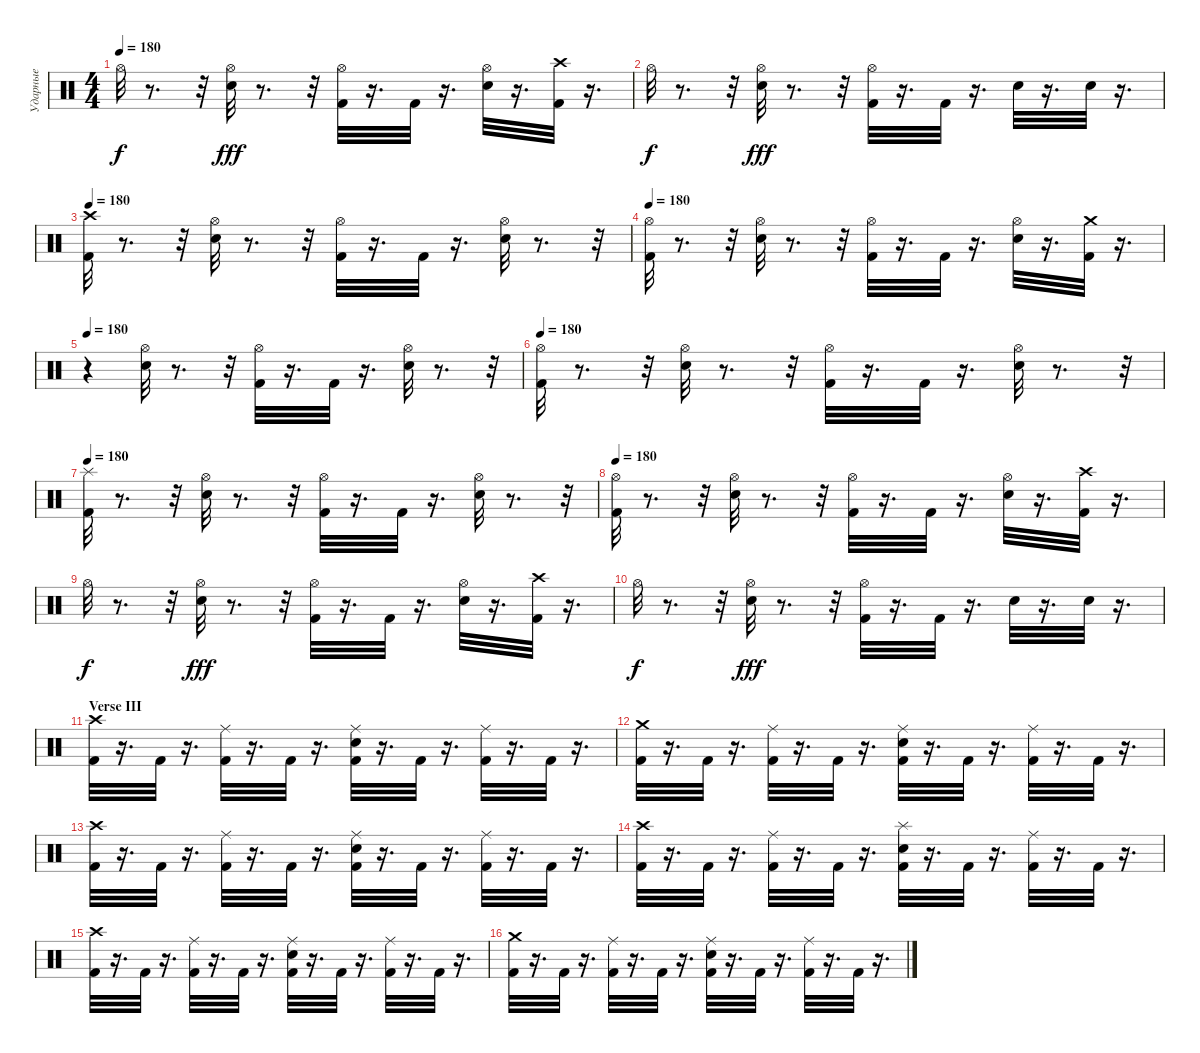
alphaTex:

\track ("Ударные" "Ударные") {instrument percussion}
\staff {score}
\articulation defaults
\ts (4 4)
\tempo 180
\clef neutral
\ks c "Hi-Hat (open)".32{dy f}
r.8{d} r.32 ("Hi-Hat (open)" "Snare (hit) 2").32{dy fff} r.8{d} r.32 ("Kick (hit) 2" "Hi-Hat (open)").32 r.16{d} "Kick (hit) 2".32 r.16{d} ("Hi-Hat (open)" "Snare (hit) 2").32 r.16{d} ("Kick (hit) 2" "Crash high (hit)").32 r.16{d} |
"Hi-Hat (open)".32{dy f} r.8{d} r.32 ("Hi-Hat (open)" "Snare (hit) 2").32{dy fff} r.8{d} r.32 ("Hi-Hat (open)" "Kick (hit) 2").32 r.16{d} "Kick (hit) 2".32 r.16{d} "Snare (hit) 2".32 r.16{d} "Snare (hit) 2".32 r.16{d} |
\tempo 180
("Kick (hit) 2" "Crash high (hit)").32 r.8{d} r.32 ("Snare (hit) 2" "Hi-Hat (open)").32 r.8{d} r.32 ("Hi-Hat (open)" "Kick (hit) 2").32 r.16{d} "Kick (hit) 2".32 r.16{d} ("Hi-Hat (open)" "Snare (hit) 2").32 r.8{d} r.32 |
\tempo 180
("Hi-Hat (open)" "Kick (hit) 2").32 r.8{d} r.32 ("Hi-Hat (open)" "Snare (hit) 2").32 r.8{d} r.32 ("Kick (hit) 2" "Hi-Hat (open)").32 r.16{d} "Kick (hit) 2".32 r.16{d} ("Hi-Hat (open)" "Snare (hit) 2").32 r.16{d} ("Crash medium (hit)" "Kick (hit) 2").32 r.16{d} |
\tempo 180
r.4 ("Snare (hit) 2" "Hi-Hat (open)").32 r.8{d} r.32 ("Hi-Hat (open)" "Kick (hit) 2").32 r.16{d} "Kick (hit) 2".32 r.16{d} ("Hi-Hat (open)" "Snare (hit) 2").32 r.8{d} r.32 |
\tempo 180
("Hi-Hat (open)" "Kick (hit) 2").32 r.8{d} r.32 ("Snare (hit) 2" "Hi-Hat (open)").32 r.8{d} r.32 ("Kick (hit) 2" "Hi-Hat (open)").32 r.16{d} "Kick (hit) 2".32 r.16{d} ("Hi-Hat (open)" "Snare (hit) 2").32 r.8{d} r.32 |
\tempo 180
("Kick (hit) 2" "Splash (hit)").32 r.8{d} r.32 ("Snare (hit) 2" "Hi-Hat (open)").32 r.8{d} r.32 ("Kick (hit) 2" "Hi-Hat (open)").32 r.16{d} "Kick (hit) 2".32 r.16{d} ("Hi-Hat (open)" "Snare (hit) 2").32 r.8{d} r.32 |
\tempo 180
("Kick (hit) 2" "Hi-Hat (open)").32 r.8{d} r.32 ("Snare (hit) 2" "Hi-Hat (open)").32 r.8{d} r.32 ("Kick (hit) 2" "Hi-Hat (open)").32 r.16{d} "Kick (hit) 2".32 r.16{d} ("Hi-Hat (open)" "Snare (hit) 2").32 r.16{d} ("Crash high (hit)" "Kick (hit) 2").32 r.16{d} |
"Hi-Hat (open)".32{dy f} r.8{d} r.32 ("Snare (hit) 2" "Hi-Hat (open)").32{dy fff} r.8{d} r.32 ("Hi-Hat (open)" "Kick (hit) 2").32 r.16{d} "Kick (hit) 2".32 r.16{d} ("Snare (hit) 2" "Hi-Hat (open)").32 r.16{d} ("Crash high (hit)" "Kick (hit) 2").32 r.16{d} |
"Hi-Hat (open)".32{dy f} r.8{d} r.32 ("Snare (hit) 2" "Hi-Hat (open)").32{dy fff} r.8{d} r.32 ("Kick (hit) 2" "Hi-Hat (open)").32 r.16{d} "Kick (hit) 2".32 r.16{d} "Snare (hit) 2".32 r.16{d} "Snare (hit) 2".32 r.16{d} |
\section ("" "Verse III")
("Crash high (hit)" "Kick (hit) 2").32 r.16{d} "Kick (hit) 2".32 r.16{d} ("Ride (middle)" "Kick (hit) 2").32 r.16{d} "Kick (hit) 2".32 r.16{d} ("Snare (hit) 2" "Ride (middle)" "Kick (hit) 2").32 r.16{d} "Kick (hit) 2".32 r.16{d} ("Ride (middle)" "Kick (hit) 2").32 r.16{d} "Kick (hit) 2".32 r.16{d} |
("Crash medium (hit)" "Kick (hit) 2").32 r.16{d} "Kick (hit) 2".32 r.16{d} ("Ride (middle)" "Kick (hit) 2").32 r.16{d} "Kick (hit) 2".32 r.16{d} ("Snare (hit) 2" "Kick (hit) 2" "Ride (middle)").32 r.16{d} "Kick (hit) 2".32 r.16{d} ("Ride (middle)" "Kick (hit) 2").32 r.16{d} "Kick (hit) 2".32 r.16{d} |
("Kick (hit) 2" "Crash high (hit)").32 r.16{d} "Kick (hit) 2".32 r.16{d} ("Kick (hit) 2" "Ride (middle)").32 r.16{d} "Kick (hit) 2".32 r.16{d} ("Kick (hit) 2" "Snare (hit) 2" "Ride (middle)").32 r.16{d} "Kick (hit) 2".32 r.16{d} ("Ride (middle)" "Kick (hit) 2").32 r.16{d} "Kick (hit) 2".32 r.16{d} |
("Kick (hit) 2" "Crash high (hit)").32 r.16{d} "Kick (hit) 2".32 r.16{d} ("Kick (hit) 2" "Ride (middle)").32 r.16{d} "Kick (hit) 2".32 r.16{d} ("Kick (hit) 2" "Splash (hit)" "Snare (hit) 2").32 r.16{d} "Kick (hit) 2".32 r.16{d} ("Kick (hit) 2" "Ride (middle)").32 r.16{d} "Kick (hit) 2".32 r.16{d} |
("Crash high (hit)" "Kick (hit) 2").32 r.16{d} "Kick (hit) 2".32 r.16{d} ("Kick (hit) 2" "Ride (middle)").32 r.16{d} "Kick (hit) 2".32 r.16{d} ("Snare (hit) 2" "Ride (middle)" "Kick (hit) 2").32 r.16{d} "Kick (hit) 2".32 r.16{d} ("Kick (hit) 2" "Ride (middle)").32 r.16{d} "Kick (hit) 2".32 r.16{d} |
("Crash medium (hit)" "Kick (hit) 2").32 r.16{d} "Kick (hit) 2".32 r.16{d} ("Kick (hit) 2" "Ride (middle)").32 r.16{d} "Kick (hit) 2".32 r.16{d} ("Kick (hit) 2" "Snare (hit) 2" "Ride (middle)").32 r.16{d} "Kick (hit) 2".32 r.16{d} ("Ride (middle)" "Kick (hit) 2").32 r.16{d} "Kick (hit) 2".32 r.16{d}
